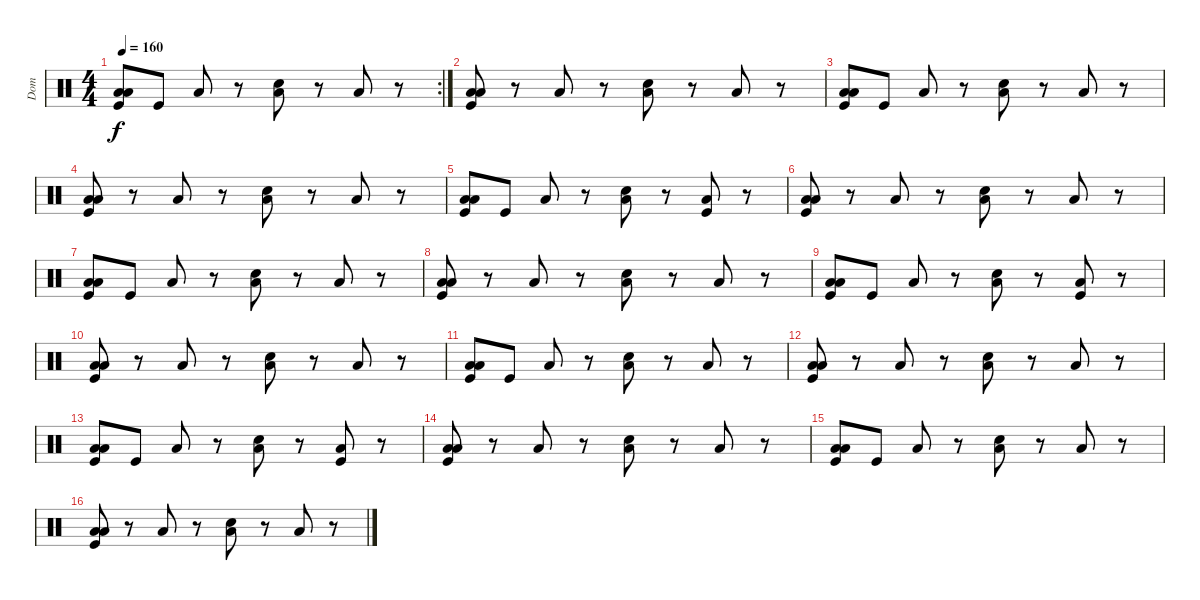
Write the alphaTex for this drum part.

\track ("Dom" "Dom") {instrument percussion}
\staff {score}
\articulation defaults
\rc 2
\ts (4 4)
\tempo 160
\clef neutral
\ks c
("Low Floor Tom (hit)" "Low Tom (hit)" "Kick (hit)").8{dy f} "Kick (hit)".8 "Low Floor Tom (hit)".8 r.8 ("Low Floor Tom (hit)" "Snare (hit) 2").8 r.8 "Low Floor Tom (hit)".8 r.8 |
("Low Floor Tom (hit)" "Low Tom (hit)" "Kick (hit)").8 r.8 "Low Floor Tom (hit)".8 r.8 ("Low Floor Tom (hit)" "Snare (hit) 2").8 r.8 "Low Floor Tom (hit)".8 r.8 |
("Low Floor Tom (hit)" "Low Tom (hit)" "Kick (hit)").8 "Kick (hit)".8 "Low Floor Tom (hit)".8 r.8 ("Low Floor Tom (hit)" "Snare (hit) 2").8 r.8 "Low Floor Tom (hit)".8 r.8 |
("Low Floor Tom (hit)" "Low Tom (hit)" "Kick (hit)").8 r.8 "Low Floor Tom (hit)".8 r.8 ("Low Floor Tom (hit)" "Snare (hit) 2").8 r.8 "Low Floor Tom (hit)".8 r.8 |
("Low Floor Tom (hit)" "Low Tom (hit)" "Kick (hit)").8 "Kick (hit)".8 "Low Floor Tom (hit)".8 r.8 ("Low Floor Tom (hit)" "Snare (hit) 2").8 r.8 ("Low Floor Tom (hit)" "Kick (hit)").8 r.8 |
("Low Floor Tom (hit)" "Low Tom (hit)" "Kick (hit)").8 r.8 "Low Floor Tom (hit)".8 r.8 ("Low Floor Tom (hit)" "Snare (hit) 2").8 r.8 "Low Floor Tom (hit)".8 r.8 |
("Low Floor Tom (hit)" "Low Tom (hit)" "Kick (hit)").8 "Kick (hit)".8 "Low Floor Tom (hit)".8 r.8 ("Low Floor Tom (hit)" "Snare (hit) 2").8 r.8 "Low Floor Tom (hit)".8 r.8 |
("Low Floor Tom (hit)" "Low Tom (hit)" "Kick (hit)").8 r.8 "Low Floor Tom (hit)".8 r.8 ("Low Floor Tom (hit)" "Snare (hit) 2").8 r.8 "Low Floor Tom (hit)".8 r.8 |
("Low Floor Tom (hit)" "Low Tom (hit)" "Kick (hit)").8 "Kick (hit)".8 "Low Floor Tom (hit)".8 r.8 ("Low Floor Tom (hit)" "Snare (hit) 2").8 r.8 ("Low Floor Tom (hit)" "Kick (hit)").8 r.8 |
("Low Floor Tom (hit)" "Low Tom (hit)" "Kick (hit)").8 r.8 "Low Floor Tom (hit)".8 r.8 ("Low Floor Tom (hit)" "Snare (hit) 2").8 r.8 "Low Floor Tom (hit)".8 r.8 |
("Low Floor Tom (hit)" "Low Tom (hit)" "Kick (hit)").8 "Kick (hit)".8 "Low Floor Tom (hit)".8 r.8 ("Low Floor Tom (hit)" "Snare (hit) 2").8 r.8 "Low Floor Tom (hit)".8 r.8 |
("Low Floor Tom (hit)" "Low Tom (hit)" "Kick (hit)").8 r.8 "Low Floor Tom (hit)".8 r.8 ("Low Floor Tom (hit)" "Snare (hit) 2").8 r.8 "Low Floor Tom (hit)".8 r.8 |
("Low Floor Tom (hit)" "Low Tom (hit)" "Kick (hit)").8 "Kick (hit)".8 "Low Floor Tom (hit)".8 r.8 ("Low Floor Tom (hit)" "Snare (hit) 2").8 r.8 ("Low Floor Tom (hit)" "Kick (hit)").8 r.8 |
("Low Floor Tom (hit)" "Low Tom (hit)" "Kick (hit)").8 r.8 "Low Floor Tom (hit)".8 r.8 ("Low Floor Tom (hit)" "Snare (hit) 2").8 r.8 "Low Floor Tom (hit)".8 r.8 |
("Low Floor Tom (hit)" "Low Tom (hit)" "Kick (hit)").8 "Kick (hit)".8 "Low Floor Tom (hit)".8 r.8 ("Low Floor Tom (hit)" "Snare (hit) 2").8 r.8 "Low Floor Tom (hit)".8 r.8 |
("Low Floor Tom (hit)" "Low Tom (hit)" "Kick (hit)").8 r.8 "Low Floor Tom (hit)".8 r.8 ("Low Floor Tom (hit)" "Snare (hit) 2").8 r.8 "Low Floor Tom (hit)".8 r.8
